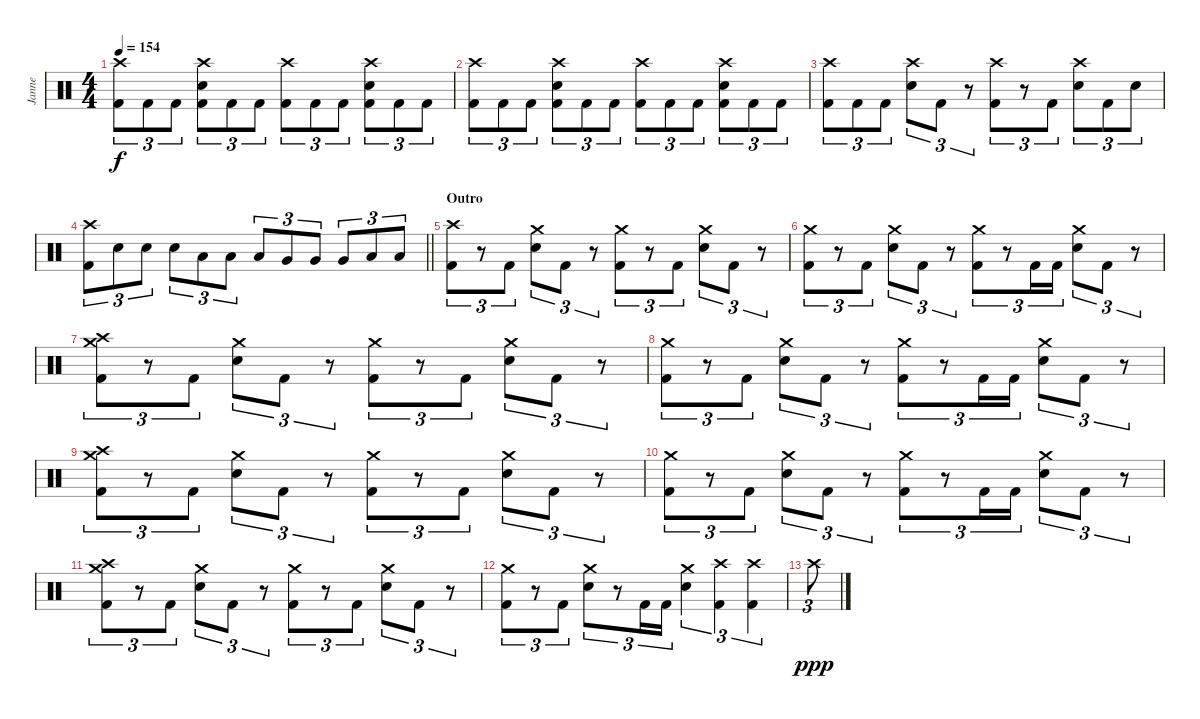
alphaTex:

\track ("Janne" "Janne") {instrument percussion}
\staff {score}
\articulation defaults
\ts (4 4)
\tempo 154
\clef neutral
\ks c
("Crash high (hit)" "Kick (hit) 2").8{tu (3 2) dy f} "Kick (hit) 2".8{tu (3 2)} "Kick (hit) 2".8{tu (3 2)} ("Crash high (hit)" "Electric Snare (hit)" "Kick (hit) 2").8{tu (3 2)} "Kick (hit) 2".8{tu (3 2)} "Kick (hit) 2".8{tu (3 2)} ("Crash high (hit)" "Kick (hit) 2").8{tu (3 2)} "Kick (hit) 2".8{tu (3 2)} "Kick (hit) 2".8{tu (3 2)} ("Crash high (hit)" "Electric Snare (hit)" "Kick (hit) 2").8{tu (3 2)} "Kick (hit) 2".8{tu (3 2)} "Kick (hit) 2".8{tu (3 2)} |
("Crash high (hit)" "Kick (hit) 2").8{tu (3 2)} "Kick (hit) 2".8{tu (3 2)} "Kick (hit) 2".8{tu (3 2)} ("Crash high (hit)" "Electric Snare (hit)" "Kick (hit) 2").8{tu (3 2)} "Kick (hit) 2".8{tu (3 2)} "Kick (hit) 2".8{tu (3 2)} ("Crash high (hit)" "Kick (hit) 2").8{tu (3 2)} "Kick (hit) 2".8{tu (3 2)} "Kick (hit) 2".8{tu (3 2)} ("Crash high (hit)" "Electric Snare (hit)" "Kick (hit) 2").8{tu (3 2)} "Kick (hit) 2".8{tu (3 2)} "Kick (hit) 2".8{tu (3 2)} |
("Crash high (hit)" "Kick (hit) 2").8{tu (3 2)} "Kick (hit) 2".8{tu (3 2)} "Kick (hit) 2".8{tu (3 2)} ("Crash high (hit)" "Electric Snare (hit)").8{tu (3 2)} "Kick (hit) 2".8{tu (3 2)} r.8{tu (3 2)} ("Crash high (hit)" "Kick (hit) 2").8{tu (3 2)} r.8{tu (3 2)} "Kick (hit) 2".8{tu (3 2)} ("Crash high (hit)" "Electric Snare (hit)").8{tu (3 2)} "Kick (hit) 2".8{tu (3 2)} "Electric Snare (hit)".8{tu (3 2)} |
\barLineRight lightlight
("Crash high (hit)" "Kick (hit) 2").8{tu (3 2)} "Electric Snare (hit)".8{tu (3 2)} "Electric Snare (hit)".8{tu (3 2)} "Electric Snare (hit)".8{tu (3 2)} "Low Tom (hit)".8{tu (3 2)} "Low Tom (hit)".8{tu (3 2)} "Low Tom (hit)".8{tu (3 2)} "Very Low Tom (hit)".8{tu (3 2)} "Very Low Tom (hit)".8{tu (3 2)} "Very Low Tom (hit)".8{tu (3 2)} "Low Floor Tom (hit)".8{tu (3 2)} "Low Floor Tom (hit)".8{tu (3 2)} |
\section ("" "Outro")
("Crash high (hit)" "Kick (hit) 2").8{tu (3 2)} r.8{tu (3 2)} "Kick (hit) 2".8{tu (3 2)} ("Crash medium (hit)" "Electric Snare (hit)").8{tu (3 2)} "Kick (hit) 2".8{tu (3 2)} r.8{tu (3 2)} ("Crash medium (hit)" "Kick (hit) 2").8{tu (3 2)} r.8{tu (3 2)} "Kick (hit) 2".8{tu (3 2)} ("Crash medium (hit)" "Electric Snare (hit)").8{tu (3 2)} "Kick (hit) 2".8{tu (3 2)} r.8{tu (3 2)} |
("Crash medium (hit)" "Kick (hit) 2").8{tu (3 2)} r.8{tu (3 2)} "Kick (hit) 2".8{tu (3 2)} ("Crash medium (hit)" "Electric Snare (hit)").8{tu (3 2)} "Kick (hit) 2".8{tu (3 2)} r.8{tu (3 2)} ("Crash medium (hit)" "Kick (hit) 2").8{tu (3 2)} r.8{tu (3 2)} "Kick (hit) 2".16{tu (3 2)} "Kick (hit) 2".16{tu (3 2)} ("Crash medium (hit)" "Electric Snare (hit)").8{tu (3 2)} "Kick (hit) 2".8{tu (3 2)} r.8{tu (3 2)} |
("Crash high (hit)" "Crash medium (hit)" "Kick (hit) 2").8{tu (3 2)} r.8{tu (3 2)} "Kick (hit) 2".8{tu (3 2)} ("Crash medium (hit)" "Electric Snare (hit)").8{tu (3 2)} "Kick (hit) 2".8{tu (3 2)} r.8{tu (3 2)} ("Crash medium (hit)" "Kick (hit) 2").8{tu (3 2)} r.8{tu (3 2)} "Kick (hit) 2".8{tu (3 2)} ("Crash medium (hit)" "Electric Snare (hit)").8{tu (3 2)} "Kick (hit) 2".8{tu (3 2)} r.8{tu (3 2)} |
("Crash medium (hit)" "Kick (hit) 2").8{tu (3 2)} r.8{tu (3 2)} "Kick (hit) 2".8{tu (3 2)} ("Crash medium (hit)" "Electric Snare (hit)").8{tu (3 2)} "Kick (hit) 2".8{tu (3 2)} r.8{tu (3 2)} ("Crash medium (hit)" "Kick (hit) 2").8{tu (3 2)} r.8{tu (3 2)} "Kick (hit) 2".16{tu (3 2)} "Kick (hit) 2".16{tu (3 2)} ("Crash medium (hit)" "Electric Snare (hit)").8{tu (3 2)} "Kick (hit) 2".8{tu (3 2)} r.8{tu (3 2)} |
("Crash high (hit)" "Crash medium (hit)" "Kick (hit) 2").8{tu (3 2)} r.8{tu (3 2)} "Kick (hit) 2".8{tu (3 2)} ("Crash medium (hit)" "Electric Snare (hit)").8{tu (3 2)} "Kick (hit) 2".8{tu (3 2)} r.8{tu (3 2)} ("Crash medium (hit)" "Kick (hit) 2").8{tu (3 2)} r.8{tu (3 2)} "Kick (hit) 2".8{tu (3 2)} ("Crash medium (hit)" "Electric Snare (hit)").8{tu (3 2)} "Kick (hit) 2".8{tu (3 2)} r.8{tu (3 2)} |
("Crash medium (hit)" "Kick (hit) 2").8{tu (3 2)} r.8{tu (3 2)} "Kick (hit) 2".8{tu (3 2)} ("Crash medium (hit)" "Electric Snare (hit)").8{tu (3 2)} "Kick (hit) 2".8{tu (3 2)} r.8{tu (3 2)} ("Crash medium (hit)" "Kick (hit) 2").8{tu (3 2)} r.8{tu (3 2)} "Kick (hit) 2".16{tu (3 2)} "Kick (hit) 2".16{tu (3 2)} ("Crash medium (hit)" "Electric Snare (hit)").8{tu (3 2)} "Kick (hit) 2".8{tu (3 2)} r.8{tu (3 2)} |
("Crash high (hit)" "Crash medium (hit)" "Kick (hit) 2").8{tu (3 2)} r.8{tu (3 2)} "Kick (hit) 2".8{tu (3 2)} ("Crash medium (hit)" "Electric Snare (hit)").8{tu (3 2)} "Kick (hit) 2".8{tu (3 2)} r.8{tu (3 2)} ("Crash medium (hit)" "Kick (hit) 2").8{tu (3 2)} r.8{tu (3 2)} "Kick (hit) 2".8{tu (3 2)} ("Crash medium (hit)" "Electric Snare (hit)").8{tu (3 2)} "Kick (hit) 2".8{tu (3 2)} r.8{tu (3 2)} |
("Crash medium (hit)" "Kick (hit) 2").8{tu (3 2)} r.8{tu (3 2)} "Kick (hit) 2".8{tu (3 2)} ("Crash medium (hit)" "Electric Snare (hit)").8{tu (3 2)} r.8{tu (3 2)} "Kick (hit) 2".16{tu (3 2)} "Kick (hit) 2".16{tu (3 2)} ("Crash medium (hit)" "Electric Snare (hit)").4{tu (3 2)} ("Crash high (hit)" "Kick (hit) 2").4{tu (3 2)} ("Crash high (hit)" "Kick (hit) 2").4{tu (3 2)} |
"Crash high (hit)".8{tu (3 2) dy ppp}
